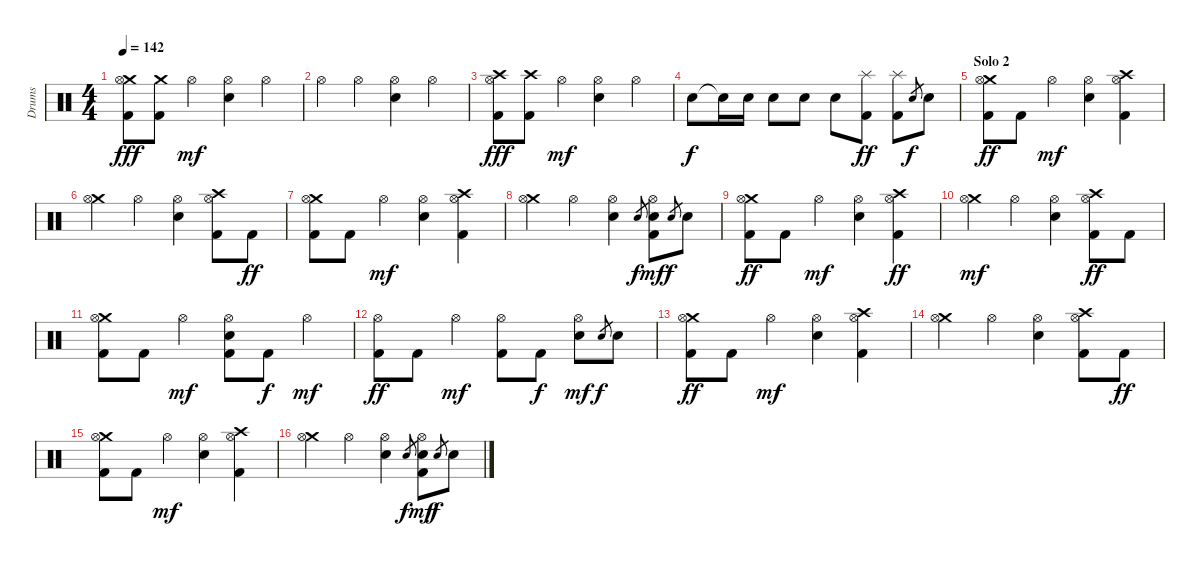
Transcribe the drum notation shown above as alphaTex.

\track ("Drums" "Drums") {instrument percussion}
\staff {score}
\articulation defaults
\ts (4 4)
\tempo 142
\clef neutral
\ks c
("Crash medium (hit)" "Hi-Hat (open)" "Kick (hit) 2").8{dy fff} ("Crash medium (hit)" "Kick (hit) 2").8 "Hi-Hat (open)".4{dy mf} ("Hi-Hat (open)" "Snare (hit) 2").4 "Hi-Hat (open)".4 |
"Hi-Hat (open)".4 "Hi-Hat (open)".4 ("Hi-Hat (open)" "Snare (hit) 2").4 "Hi-Hat (open)".4 |
("Crash high (hit)" "Hi-Hat (open)" "Kick (hit) 2").8{dy fff} ("Crash high (hit)" "Kick (hit) 2").8 "Hi-Hat (open)".4{dy mf} ("Hi-Hat (open)" "Snare (hit) 2").4 "Hi-Hat (open)".4 |
"Snare (hit) 2".8{dy f} "Snare (hit) 2"{t}.16 "Snare (hit) 2".16 "Snare (hit) 2".8 "Snare (hit) 2".8 "Snare (hit) 2".8 ("Splash (hit)" "Kick (hit) 2").8{dy ff} ("Splash (hit)" "Kick (hit) 2").8 "Snare (hit) 2".8{gr dy f} "Snare (hit) 2".8 |
\section ("" "Solo 2")
("Crash medium (hit)" "Hi-Hat (open)" "Kick (hit) 2").8{dy ff} "Kick (hit) 2".8 "Hi-Hat (open)".4{dy mf} ("Hi-Hat (open)" "Snare (hit) 2").4 ("Crash high (hit)" "Hi-Hat (open)" "Kick (hit) 2").4 |
("Crash medium (hit)" "Hi-Hat (open)").4 "Hi-Hat (open)".4 ("Hi-Hat (open)" "Snare (hit) 2").4 ("Crash high (hit)" "Hi-Hat (open)" "Kick (hit) 2").8 "Kick (hit) 2".8{dy ff} |
("Crash medium (hit)" "Hi-Hat (open)" "Kick (hit) 2").8 "Kick (hit) 2".8 "Hi-Hat (open)".4{dy mf} ("Hi-Hat (open)" "Snare (hit) 2").4 ("Crash high (hit)" "Hi-Hat (open)" "Kick (hit) 2").4 |
("Crash medium (hit)" "Hi-Hat (open)").4 "Hi-Hat (open)".4 ("Hi-Hat (open)" "Snare (hit) 2").4 "Snare (hit) 2".8{gr dy f} ("Hi-Hat (open)" "Snare (hit) 2" "Kick (hit) 2").8{dy mf} "Snare (hit) 2".8{gr dy f} "Snare (hit) 2".8 |
("Crash medium (hit)" "Hi-Hat (open)" "Kick (hit) 2").8{dy ff} "Kick (hit) 2".8 "Hi-Hat (open)".4{dy mf} ("Hi-Hat (open)" "Snare (hit) 2").4 ("Crash high (hit)" "Hi-Hat (open)" "Kick (hit) 2").4{dy ff} |
("Crash medium (hit)" "Hi-Hat (open)").4{dy mf} "Hi-Hat (open)".4 ("Hi-Hat (open)" "Snare (hit) 2").4 ("Crash high (hit)" "Hi-Hat (open)" "Kick (hit) 2").8{dy ff} "Kick (hit) 2".8 |
("Crash medium (hit)" "Hi-Hat (open)" "Kick (hit) 2").8 "Kick (hit) 2".8 "Hi-Hat (open)".4{dy mf} ("Hi-Hat (open)" "Snare (hit) 2" "Kick (hit) 2").8 "Kick (hit) 2".8{dy f} "Hi-Hat (open)".4{dy mf} |
("Hi-Hat (open)" "Kick (hit) 2").8{dy ff} "Kick (hit) 2".8 "Hi-Hat (open)".4{dy mf} ("Hi-Hat (open)" "Kick (hit) 2").8 "Kick (hit) 2".8{dy f} ("Hi-Hat (open)" "Snare (hit) 2").8{dy mf} "Snare (hit) 2".8{gr dy f} "Snare (hit) 2".8 |
("Crash medium (hit)" "Hi-Hat (open)" "Kick (hit) 2").8{dy ff} "Kick (hit) 2".8 "Hi-Hat (open)".4{dy mf} ("Hi-Hat (open)" "Snare (hit) 2").4 ("Crash high (hit)" "Hi-Hat (open)" "Kick (hit) 2").4 |
("Crash medium (hit)" "Hi-Hat (open)").4 "Hi-Hat (open)".4 ("Hi-Hat (open)" "Snare (hit) 2").4 ("Crash high (hit)" "Hi-Hat (open)" "Kick (hit) 2").8 "Kick (hit) 2".8{dy ff} |
("Crash medium (hit)" "Hi-Hat (open)" "Kick (hit) 2").8 "Kick (hit) 2".8 "Hi-Hat (open)".4{dy mf} ("Hi-Hat (open)" "Snare (hit) 2").4 ("Crash high (hit)" "Hi-Hat (open)" "Kick (hit) 2").4 |
("Crash medium (hit)" "Hi-Hat (open)").4 "Hi-Hat (open)".4 ("Hi-Hat (open)" "Snare (hit) 2").4 "Snare (hit) 2".8{gr dy f} ("Hi-Hat (open)" "Snare (hit) 2" "Kick (hit) 2").8{dy mf} "Snare (hit) 2".8{gr dy f} "Snare (hit) 2".8
